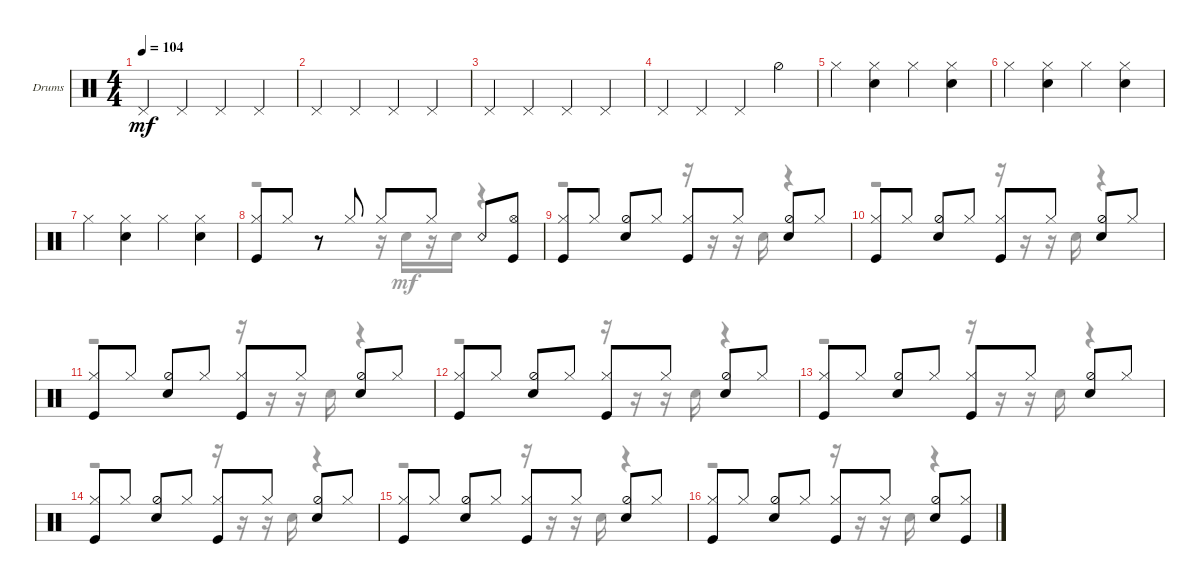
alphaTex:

\defaultSystemsLayout 4
\bracketExtendMode groupsimilarinstruments
\firstSystemTrackNameOrientation horizontal
\otherSystemsTrackNameOrientation horizontal
\track ("Drumkit" "Drums") {instrument percussion}
\staff {score}
\articulation defaults
\voice
\ts (4 4)
\tempo 104
\clef neutral
\ks c "Pedal Hi-Hat (hit)".4{dy mf} "Pedal Hi-Hat (hit)".4 "Pedal Hi-Hat (hit)".4 "Pedal Hi-Hat (hit)".4
|
"Pedal Hi-Hat (hit)".4 "Pedal Hi-Hat (hit)".4 "Pedal Hi-Hat (hit)".4 "Pedal Hi-Hat (hit)".4 |
"Pedal Hi-Hat (hit)".4 "Pedal Hi-Hat (hit)".4 "Pedal Hi-Hat (hit)".4 "Pedal Hi-Hat (hit)".4 |
"Pedal Hi-Hat (hit)".4 "Pedal Hi-Hat (hit)".4 "Pedal Hi-Hat (hit)".4 "Hi-Hat (half)".4 |
"Hi-Hat (closed)".4 ("Hi-Hat (closed)" "Snare (hit) 2").4 "Hi-Hat (closed)".4 ("Hi-Hat (closed)" "Snare (hit) 2").4 |
"Hi-Hat (closed)".4 ("Hi-Hat (closed)" "Snare (hit) 2").4 "Hi-Hat (closed)".4 ("Hi-Hat (closed)" "Snare (hit) 2").4 |
"Hi-Hat (closed)".4 ("Hi-Hat (closed)" "Snare (hit) 2").4 "Hi-Hat (closed)".4 ("Hi-Hat (closed)" "Snare (hit) 2").4 |
("Hi-Hat (closed)" "Kick (hit)").8 "Hi-Hat (closed)".8 r.8 "Hi-Hat (closed)".8 "Hi-Hat (closed)".8 "Hi-Hat (closed)".8 "Snare (rim shot)".8 ("Hi-Hat (open)" "Kick (hit)").8 |
("Hi-Hat (closed)" "Kick (hit)").8 "Hi-Hat (closed)".8 ("Hi-Hat (half)" "Snare (hit) 2").8 "Hi-Hat (closed)".8 ("Hi-Hat (closed)" "Kick (hit)").8 "Hi-Hat (closed)".8 ("Hi-Hat (half)" "Snare (hit) 2").8 "Hi-Hat (closed)".8 |
("Hi-Hat (closed)" "Kick (hit)").8 "Hi-Hat (closed)".8 ("Hi-Hat (half)" "Snare (hit) 2").8 "Hi-Hat (closed)".8 ("Hi-Hat (closed)" "Kick (hit)").8 "Hi-Hat (closed)".8 ("Hi-Hat (half)" "Snare (hit) 2").8 "Hi-Hat (closed)".8 |
("Hi-Hat (closed)" "Kick (hit)").8 "Hi-Hat (closed)".8 ("Hi-Hat (half)" "Snare (hit) 2").8 "Hi-Hat (closed)".8 ("Hi-Hat (closed)" "Kick (hit)").8 "Hi-Hat (closed)".8 ("Hi-Hat (half)" "Snare (hit) 2").8 "Hi-Hat (closed)".8 |
("Hi-Hat (closed)" "Kick (hit)").8 "Hi-Hat (closed)".8 ("Hi-Hat (half)" "Snare (hit) 2").8 "Hi-Hat (closed)".8 ("Hi-Hat (closed)" "Kick (hit)").8 "Hi-Hat (closed)".8 ("Hi-Hat (half)" "Snare (hit) 2").8 "Hi-Hat (closed)".8 |
("Hi-Hat (closed)" "Kick (hit)").8 "Hi-Hat (closed)".8 ("Hi-Hat (half)" "Snare (hit) 2").8 "Hi-Hat (closed)".8 ("Hi-Hat (closed)" "Kick (hit)").8 "Hi-Hat (closed)".8 ("Hi-Hat (half)" "Snare (hit) 2").8 "Hi-Hat (closed)".8 |
("Hi-Hat (closed)" "Kick (hit)").8 "Hi-Hat (closed)".8 ("Hi-Hat (half)" "Snare (hit) 2").8 "Hi-Hat (closed)".8 ("Hi-Hat (closed)" "Kick (hit)").8 "Hi-Hat (closed)".8 ("Hi-Hat (half)" "Snare (hit) 2").8 "Hi-Hat (closed)".8 |
("Hi-Hat (closed)" "Kick (hit)").8 "Hi-Hat (closed)".8 ("Hi-Hat (half)" "Snare (hit) 2").8 "Hi-Hat (closed)".8 ("Hi-Hat (closed)" "Kick (hit)").8 "Hi-Hat (closed)".8 ("Hi-Hat (half)" "Snare (hit) 2").8 "Hi-Hat (closed)".8 |
("Hi-Hat (closed)" "Kick (hit)").8 "Hi-Hat (closed)".8 ("Hi-Hat (half)" "Snare (hit) 2").8 "Hi-Hat (closed)".8 ("Hi-Hat (closed)" "Kick (hit)").8 "Hi-Hat (closed)".8 ("Hi-Hat (half)" "Snare (hit) 2").8 ("Hi-Hat (closed)" "Kick (hit)").8
\voice
\clef neutral
\ottava regular
\simile none
\ks c
|
|
|
|
|
|
|
r.2 r.16 "Snare (hit) 2".16 r.16 "Snare (hit) 2".16 r.4 |
r.2 r.16 r.16 r.16 "Snare (hit) 2".16 r.4 |
r.2 r.16 r.16 r.16 "Snare (hit) 2".16 r.4 |
r.2 r.16 r.16 r.16 "Snare (hit) 2".16 r.4 |
r.2 r.16 r.16 r.16 "Snare (hit) 2".16 r.4 |
r.2 r.16 r.16 r.16 "Snare (hit) 2".16 r.4 |
r.2 r.16 r.16 r.16 "Snare (hit) 2".16 r.4 |
r.2 r.16 r.16 r.16 "Snare (hit) 2".16 r.4 |
r.2 r.16 r.16 r.16 "Snare (hit) 2".16 r.4
